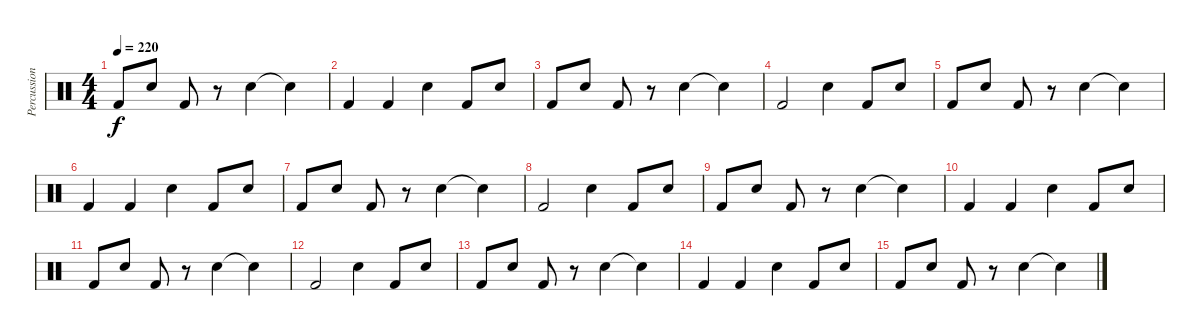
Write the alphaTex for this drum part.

\track ("Percussions" "Percussion") {instrument percussion}
\staff {score}
\articulation defaults
\ts (4 4)
\tempo 220
\clef neutral
\ks c "Kick (hit) 2".8{dy f} "Electric Snare (hit)".8 "Kick (hit) 2".8
r.8 "Electric Snare (hit)".4 "Snare (hit)"{t}.4 |
"Kick (hit) 2".4 "Kick (hit) 2".4 "Electric Snare (hit)".4 "Kick (hit) 2".8 "Electric Snare (hit)".8 |
"Kick (hit) 2".8 "Electric Snare (hit)".8 "Kick (hit) 2".8 r.8 "Electric Snare (hit)".4 "Electric Snare (hit)"{t}.4 |
"Kick (hit) 2".2 "Electric Snare (hit)".4 "Kick (hit) 2".8 "Electric Snare (hit)".8 |
"Kick (hit) 2".8 "Electric Snare (hit)".8 "Kick (hit) 2".8 r.8 "Electric Snare (hit)".4 "Snare (hit)"{t}.4 |
"Kick (hit) 2".4 "Kick (hit) 2".4 "Electric Snare (hit)".4 "Kick (hit) 2".8 "Electric Snare (hit)".8 |
"Kick (hit) 2".8 "Electric Snare (hit)".8 "Kick (hit) 2".8 r.8 "Electric Snare (hit)".4 "Electric Snare (hit)"{t}.4 |
"Kick (hit) 2".2 "Electric Snare (hit)".4 "Kick (hit) 2".8 "Electric Snare (hit)".8 |
"Kick (hit) 2".8 "Electric Snare (hit)".8 "Kick (hit) 2".8 r.8 "Electric Snare (hit)".4 "Snare (hit)"{t}.4 |
"Kick (hit) 2".4 "Kick (hit) 2".4 "Electric Snare (hit)".4 "Kick (hit) 2".8 "Electric Snare (hit)".8 |
"Kick (hit) 2".8 "Electric Snare (hit)".8 "Kick (hit) 2".8 r.8 "Electric Snare (hit)".4 "Electric Snare (hit)"{t}.4 |
"Kick (hit) 2".2 "Electric Snare (hit)".4 "Kick (hit) 2".8 "Electric Snare (hit)".8 |
"Kick (hit) 2".8 "Electric Snare (hit)".8 "Kick (hit) 2".8 r.8 "Electric Snare (hit)".4 "Snare (hit)"{t}.4 |
"Kick (hit) 2".4 "Kick (hit) 2".4 "Electric Snare (hit)".4 "Kick (hit) 2".8 "Electric Snare (hit)".8 |
"Kick (hit) 2".8 "Electric Snare (hit)".8 "Kick (hit) 2".8 r.8 "Electric Snare (hit)".4 "Snare (hit)"{t}.4
